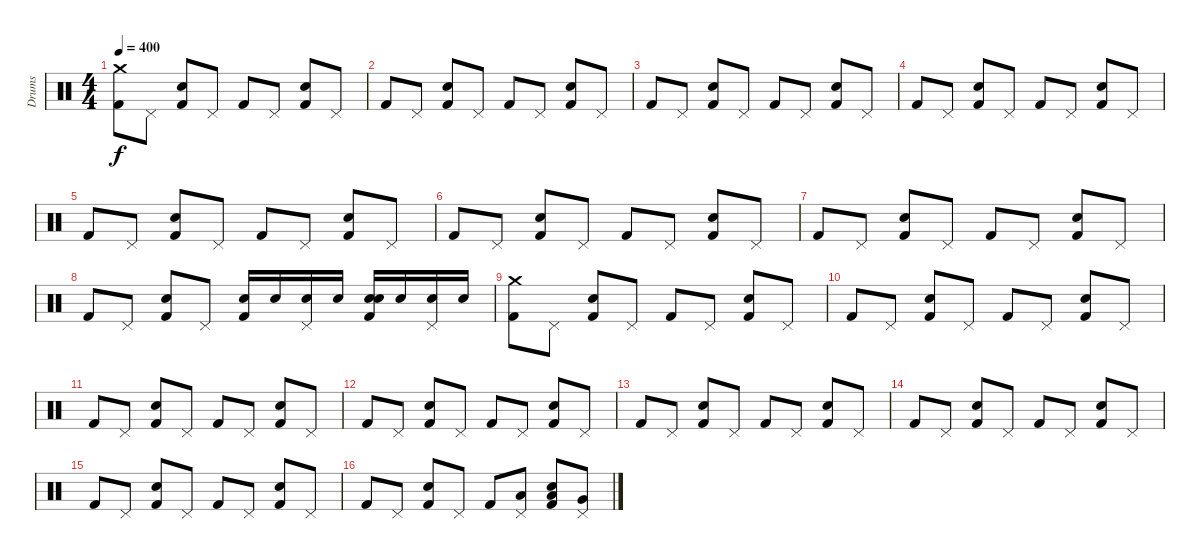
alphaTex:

\track ("Drums" "Drums") {instrument percussion}
\staff {score}
\articulation defaults
\ts (4 4)
\tempo 400
\clef neutral
\ks c
("Crash medium (hit)" "Kick (hit) 2").8{dy f} "Pedal Hi-Hat (hit)".8 ("Snare (hit) 2" "Kick (hit) 2").8 "Pedal Hi-Hat (hit)".8 "Kick (hit) 2".8 "Pedal Hi-Hat (hit)".8 ("Snare (hit) 2" "Kick (hit) 2").8 "Pedal Hi-Hat (hit)".8 |
"Kick (hit) 2".8 "Pedal Hi-Hat (hit)".8 ("Snare (hit) 2" "Kick (hit) 2").8 "Pedal Hi-Hat (hit)".8 "Kick (hit) 2".8 "Pedal Hi-Hat (hit)".8 ("Snare (hit) 2" "Kick (hit) 2").8 "Pedal Hi-Hat (hit)".8 |
"Kick (hit) 2".8 "Pedal Hi-Hat (hit)".8 ("Snare (hit) 2" "Kick (hit) 2").8 "Pedal Hi-Hat (hit)".8 "Kick (hit) 2".8 "Pedal Hi-Hat (hit)".8 ("Snare (hit) 2" "Kick (hit) 2").8 "Pedal Hi-Hat (hit)".8 |
"Kick (hit) 2".8 "Pedal Hi-Hat (hit)".8 ("Snare (hit) 2" "Kick (hit) 2").8 "Pedal Hi-Hat (hit)".8 "Kick (hit) 2".8 "Pedal Hi-Hat (hit)".8 ("Snare (hit) 2" "Kick (hit) 2").8 "Pedal Hi-Hat (hit)".8 |
"Kick (hit) 2".8 "Pedal Hi-Hat (hit)".8 ("Snare (hit) 2" "Kick (hit) 2").8 "Pedal Hi-Hat (hit)".8 "Kick (hit) 2".8 "Pedal Hi-Hat (hit)".8 ("Snare (hit) 2" "Kick (hit) 2").8 "Pedal Hi-Hat (hit)".8 |
"Kick (hit) 2".8 "Pedal Hi-Hat (hit)".8 ("Snare (hit) 2" "Kick (hit) 2").8 "Pedal Hi-Hat (hit)".8 "Kick (hit) 2".8 "Pedal Hi-Hat (hit)".8 ("Snare (hit) 2" "Kick (hit) 2").8 "Pedal Hi-Hat (hit)".8 |
"Kick (hit) 2".8 "Pedal Hi-Hat (hit)".8 ("Snare (hit) 2" "Kick (hit) 2").8 "Pedal Hi-Hat (hit)".8 "Kick (hit) 2".8 "Pedal Hi-Hat (hit)".8 ("Snare (hit) 2" "Kick (hit) 2").8 "Pedal Hi-Hat (hit)".8 |
"Kick (hit) 2".8 "Pedal Hi-Hat (hit)".8 ("Snare (hit) 2" "Kick (hit) 2").8 "Pedal Hi-Hat (hit)".8 ("Electric Snare (hit)" "Kick (hit) 2").16 "Electric Snare (hit)".16 ("Pedal Hi-Hat (hit)" "Electric Snare (hit)").16 "Electric Snare (hit)".16 ("Electric Snare (hit)" "Snare (hit) 2" "Kick (hit) 2").16 "Electric Snare (hit)".16 ("Pedal Hi-Hat (hit)" "Electric Snare (hit)").16 "Electric Snare (hit)".16 |
("Crash medium (hit)" "Kick (hit) 2").8 "Pedal Hi-Hat (hit)".8 ("Snare (hit) 2" "Kick (hit) 2").8 "Pedal Hi-Hat (hit)".8 "Kick (hit) 2".8 "Pedal Hi-Hat (hit)".8 ("Snare (hit) 2" "Kick (hit) 2").8 "Pedal Hi-Hat (hit)".8 |
"Kick (hit) 2".8 "Pedal Hi-Hat (hit)".8 ("Snare (hit) 2" "Kick (hit) 2").8 "Pedal Hi-Hat (hit)".8 "Kick (hit) 2".8 "Pedal Hi-Hat (hit)".8 ("Snare (hit) 2" "Kick (hit) 2").8 "Pedal Hi-Hat (hit)".8 |
"Kick (hit) 2".8 "Pedal Hi-Hat (hit)".8 ("Snare (hit) 2" "Kick (hit) 2").8 "Pedal Hi-Hat (hit)".8 "Kick (hit) 2".8 "Pedal Hi-Hat (hit)".8 ("Snare (hit) 2" "Kick (hit) 2").8 "Pedal Hi-Hat (hit)".8 |
"Kick (hit) 2".8 "Pedal Hi-Hat (hit)".8 ("Snare (hit) 2" "Kick (hit) 2").8 "Pedal Hi-Hat (hit)".8 "Kick (hit) 2".8 "Pedal Hi-Hat (hit)".8 ("Snare (hit) 2" "Kick (hit) 2").8 "Pedal Hi-Hat (hit)".8 |
"Kick (hit) 2".8 "Pedal Hi-Hat (hit)".8 ("Snare (hit) 2" "Kick (hit) 2").8 "Pedal Hi-Hat (hit)".8 "Kick (hit) 2".8 "Pedal Hi-Hat (hit)".8 ("Snare (hit) 2" "Kick (hit) 2").8 "Pedal Hi-Hat (hit)".8 |
"Kick (hit) 2".8 "Pedal Hi-Hat (hit)".8 ("Snare (hit) 2" "Kick (hit) 2").8 "Pedal Hi-Hat (hit)".8 "Kick (hit) 2".8 "Pedal Hi-Hat (hit)".8 ("Snare (hit) 2" "Kick (hit) 2").8 "Pedal Hi-Hat (hit)".8 |
"Kick (hit) 2".8 "Pedal Hi-Hat (hit)".8 ("Snare (hit) 2" "Kick (hit) 2").8 "Pedal Hi-Hat (hit)".8 "Kick (hit) 2".8 "Pedal Hi-Hat (hit)".8 ("Snare (hit) 2" "Kick (hit) 2").8 "Pedal Hi-Hat (hit)".8 |
"Kick (hit) 2".8 "Pedal Hi-Hat (hit)".8 ("Snare (hit) 2" "Kick (hit) 2").8 "Pedal Hi-Hat (hit)".8 "Kick (hit) 2".8 ("Low Tom (hit)" "Pedal Hi-Hat (hit)").8 ("Low Tom (hit)" "Snare (hit) 2" "Kick (hit) 2").8 ("Pedal Hi-Hat (hit)" "Very Low Tom (hit)").8
